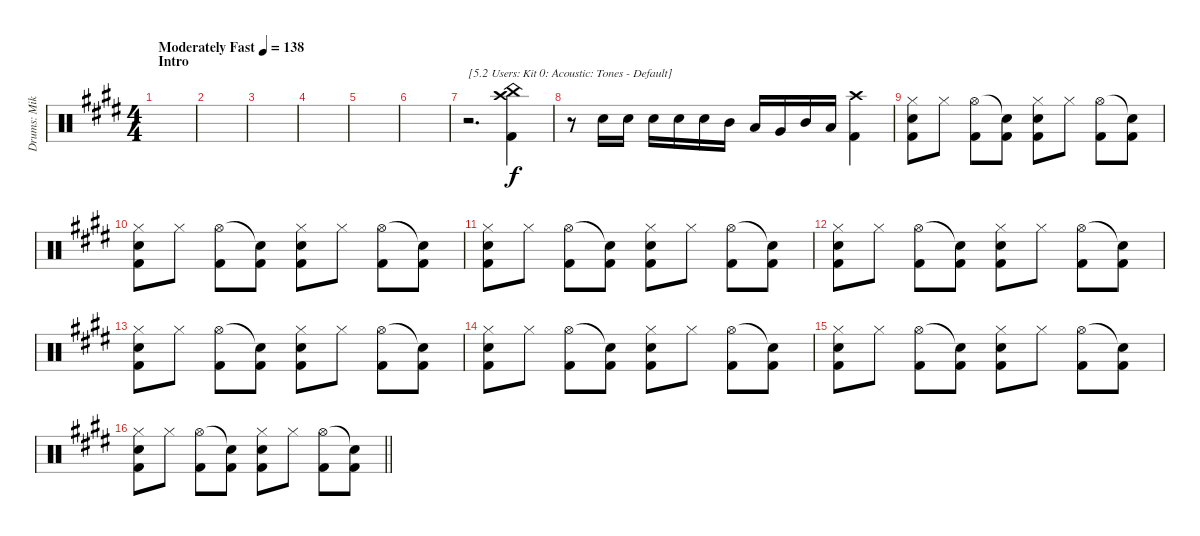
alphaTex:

\track ("Drums: Mike" "Drums: Mik") {instrument percussion}
\staff {score}
\articulation defaults
\ts (4 4)
\section ("" "Intro")
\tempo (138 "Moderately Fast")
\clef neutral
\ks e
|
|
|
|
|
|
r.2{d txt "[5.2 Users: Kit 0: Acoustic: Tones - Default]"} ("Crash high (hit)" "China (hit)" "Kick (hit) 2").4 |
r.8 "Electric Snare (hit)".16 "Electric Snare (hit)".16 "Electric Snare (hit)".16 "Electric Snare (hit)".16 "Electric Snare (hit)".16 "Mid Tom (hit)".16 "Low Tom (hit)".16 "Very Low Tom (hit)".16 "Mid Tom (hit)".16 "Low Tom (hit)".16 ("Crash high (hit)" "Kick (hit) 2").4 |
("Hi-Hat (closed)" "Electric Snare (hit)" "Kick (hit) 2").8 "Hi-Hat (closed)".8 ("Hi-Hat (open)" "Kick (hit) 2").8 ("Snare (hit)"{t} "Kick (hit) 2").8 ("Hi-Hat (closed)" "Electric Snare (hit)" "Kick (hit) 2").8 "Hi-Hat (closed)".8 ("Hi-Hat (open)" "Kick (hit) 2").8 ("Snare (hit)"{t} "Kick (hit) 2").8 |
("Hi-Hat (closed)" "Electric Snare (hit)" "Kick (hit) 2").8 "Hi-Hat (closed)".8 ("Hi-Hat (open)" "Kick (hit) 2").8 ("Snare (hit)"{t} "Kick (hit) 2").8 ("Hi-Hat (closed)" "Electric Snare (hit)" "Kick (hit) 2").8 "Hi-Hat (closed)".8 ("Hi-Hat (open)" "Kick (hit) 2").8 ("Snare (hit)"{t} "Kick (hit) 2").8 |
("Hi-Hat (closed)" "Electric Snare (hit)" "Kick (hit) 2").8 "Hi-Hat (closed)".8 ("Hi-Hat (open)" "Kick (hit) 2").8 ("Snare (hit)"{t} "Kick (hit) 2").8 ("Hi-Hat (closed)" "Electric Snare (hit)" "Kick (hit) 2").8 "Hi-Hat (closed)".8 ("Hi-Hat (open)" "Kick (hit) 2").8 ("Snare (hit)"{t} "Kick (hit) 2").8 |
("Hi-Hat (closed)" "Electric Snare (hit)" "Kick (hit) 2").8 "Hi-Hat (closed)".8 ("Hi-Hat (open)" "Kick (hit) 2").8 ("Snare (hit)"{t} "Kick (hit) 2").8 ("Hi-Hat (closed)" "Electric Snare (hit)" "Kick (hit) 2").8 "Hi-Hat (closed)".8 ("Hi-Hat (open)" "Kick (hit) 2").8 ("Snare (hit)"{t} "Kick (hit) 2").8 |
("Hi-Hat (closed)" "Electric Snare (hit)" "Kick (hit) 2").8 "Hi-Hat (closed)".8 ("Hi-Hat (open)" "Kick (hit) 2").8 ("Snare (hit)"{t} "Kick (hit) 2").8 ("Hi-Hat (closed)" "Electric Snare (hit)" "Kick (hit) 2").8 "Hi-Hat (closed)".8 ("Hi-Hat (open)" "Kick (hit) 2").8 ("Snare (hit)"{t} "Kick (hit) 2").8 |
("Hi-Hat (closed)" "Electric Snare (hit)" "Kick (hit) 2").8 "Hi-Hat (closed)".8 ("Hi-Hat (open)" "Kick (hit) 2").8 ("Snare (hit)"{t} "Kick (hit) 2").8 ("Hi-Hat (closed)" "Electric Snare (hit)" "Kick (hit) 2").8 "Hi-Hat (closed)".8 ("Hi-Hat (open)" "Kick (hit) 2").8 ("Snare (hit)"{t} "Kick (hit) 2").8 |
("Hi-Hat (closed)" "Electric Snare (hit)" "Kick (hit) 2").8 "Hi-Hat (closed)".8 ("Hi-Hat (open)" "Kick (hit) 2").8 ("Snare (hit)"{t} "Kick (hit) 2").8 ("Hi-Hat (closed)" "Electric Snare (hit)" "Kick (hit) 2").8 "Hi-Hat (closed)".8 ("Hi-Hat (open)" "Kick (hit) 2").8 ("Snare (hit)"{t} "Kick (hit) 2").8 |
\barLineRight lightlight
("Hi-Hat (closed)" "Electric Snare (hit)" "Kick (hit) 2").8 "Hi-Hat (closed)".8 ("Hi-Hat (open)" "Kick (hit) 2").8 ("Snare (hit)"{t} "Kick (hit) 2").8 ("Hi-Hat (closed)" "Electric Snare (hit)" "Kick (hit) 2").8 "Hi-Hat (closed)".8 ("Hi-Hat (open)" "Kick (hit) 2").8 ("Snare (hit)"{t} "Kick (hit) 2").8
